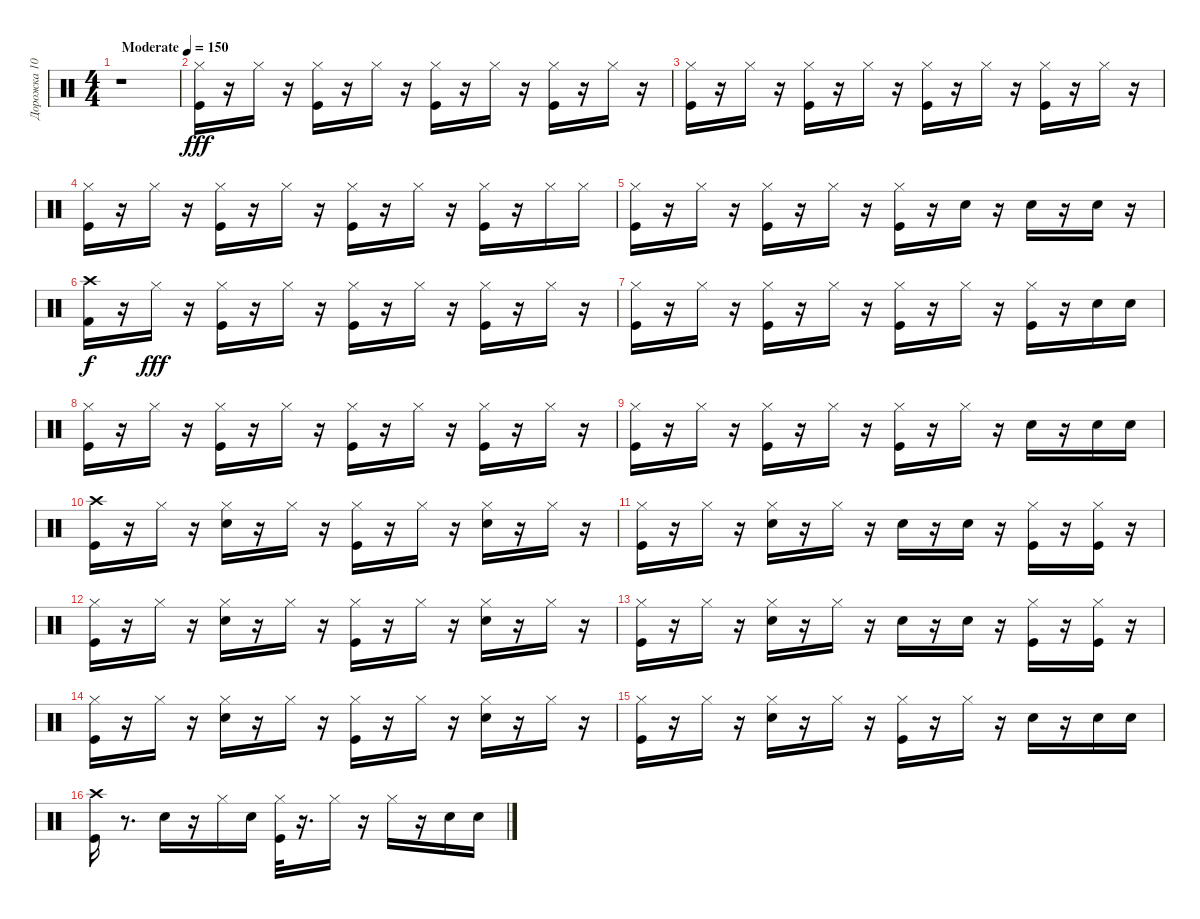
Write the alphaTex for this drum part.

\track ("Дорожка 10" "Дорожка 10") {instrument percussion}
\staff {score}
\articulation defaults
\ts (4 4)
\tempo (150 "Moderate")
\clef neutral
\ks c
r.1{dy fff} |
("Kick (hit)" "Hi-Hat (closed)").16 r.16 "Hi-Hat (closed)".16 r.16 ("Hi-Hat (closed)" "Kick (hit)").16 r.16 "Hi-Hat (closed)".16 r.16 ("Kick (hit)" "Hi-Hat (closed)").16 r.16 "Hi-Hat (closed)".16 r.16 ("Hi-Hat (closed)" "Kick (hit)").16 r.16 "Hi-Hat (closed)".16 r.16 |
("Kick (hit)" "Hi-Hat (closed)").16 r.16 "Hi-Hat (closed)".16 r.16 ("Hi-Hat (closed)" "Kick (hit)").16 r.16 "Hi-Hat (closed)".16 r.16 ("Hi-Hat (closed)" "Kick (hit)").16 r.16 "Hi-Hat (closed)".16 r.16 ("Hi-Hat (closed)" "Kick (hit)").16 r.16 "Hi-Hat (closed)".16 r.16 |
("Kick (hit)" "Hi-Hat (closed)").16 r.16 "Hi-Hat (closed)".16 r.16 ("Hi-Hat (closed)" "Kick (hit)").16 r.16 "Hi-Hat (closed)".16 r.16 ("Hi-Hat (closed)" "Kick (hit)").16 r.16 "Hi-Hat (closed)".16 r.16 ("Hi-Hat (closed)" "Kick (hit)").16 r.16 "Hi-Hat (closed)".16 "Hi-Hat (closed)".16 |
("Kick (hit)" "Hi-Hat (closed)").16 r.16 "Hi-Hat (closed)".16 r.16 ("Hi-Hat (closed)" "Kick (hit)").16 r.16 "Hi-Hat (closed)".16 r.16 ("Hi-Hat (closed)" "Kick (hit)").16 r.16 "Electric Snare (hit)".16 r.16 "Electric Snare (hit)".16 r.16 "Electric Snare (hit)".16 r.16 |
("Kick (hit) 2" "Crash high (hit)").16{dy f} r.16 "Hi-Hat (closed)".16{dy fff} r.16 ("Kick (hit)" "Hi-Hat (closed)").16 r.16 "Hi-Hat (closed)".16 r.16 ("Hi-Hat (closed)" "Kick (hit)").16 r.16 "Hi-Hat (closed)".16 r.16 ("Hi-Hat (closed)" "Kick (hit)").16 r.16 "Hi-Hat (closed)".16 r.16 |
("Hi-Hat (closed)" "Kick (hit)").16 r.16 "Hi-Hat (closed)".16 r.16 ("Hi-Hat (closed)" "Kick (hit)").16 r.16 "Hi-Hat (closed)".16 r.16 ("Hi-Hat (closed)" "Kick (hit)").16 r.16 "Hi-Hat (closed)".16 r.16 ("Hi-Hat (closed)" "Kick (hit)").16 r.16 "Electric Snare (hit)".16 "Electric Snare (hit)".16 |
("Kick (hit)" "Hi-Hat (closed)").16 r.16 "Hi-Hat (closed)".16 r.16 ("Hi-Hat (closed)" "Kick (hit)").16 r.16 "Hi-Hat (closed)".16 r.16 ("Kick (hit)" "Hi-Hat (closed)").16 r.16 "Hi-Hat (closed)".16 r.16 ("Hi-Hat (closed)" "Kick (hit)").16 r.16 "Hi-Hat (closed)".16 r.16 |
("Kick (hit)" "Hi-Hat (closed)").16 r.16 "Hi-Hat (closed)".16 r.16 ("Kick (hit)" "Hi-Hat (closed)").16 r.16 "Hi-Hat (closed)".16 r.16 ("Hi-Hat (closed)" "Kick (hit)").16 r.16 "Hi-Hat (closed)".16 r.16 "Electric Snare (hit)".16 r.16 "Electric Snare (hit)".16 "Electric Snare (hit)".16 |
("Kick (hit)" "Crash high (hit)").16 r.16 "Hi-Hat (closed)".16 r.16 ("Electric Snare (hit)" "Hi-Hat (closed)").16 r.16 "Hi-Hat (closed)".16 r.16 ("Hi-Hat (closed)" "Kick (hit)").16 r.16 "Hi-Hat (closed)".16 r.16 ("Electric Snare (hit)" "Hi-Hat (closed)").16 r.16 "Hi-Hat (closed)".16 r.16 |
("Hi-Hat (closed)" "Kick (hit)").16 r.16 "Hi-Hat (closed)".16 r.16 ("Electric Snare (hit)" "Hi-Hat (closed)").16 r.16 "Hi-Hat (closed)".16 r.16 "Electric Snare (hit)".16 r.16 "Electric Snare (hit)".16 r.16 ("Kick (hit)" "Hi-Hat (closed)").16 r.16 ("Hi-Hat (closed)" "Kick (hit)").16 r.16 |
("Hi-Hat (closed)" "Kick (hit)").16 r.16 "Hi-Hat (closed)".16 r.16 ("Electric Snare (hit)" "Hi-Hat (closed)").16 r.16 "Hi-Hat (closed)".16 r.16 ("Kick (hit)" "Hi-Hat (closed)").16 r.16 "Hi-Hat (closed)".16 r.16 ("Electric Snare (hit)" "Hi-Hat (closed)").16 r.16 "Hi-Hat (closed)".16 r.16 |
("Hi-Hat (closed)" "Kick (hit)").16 r.16 "Hi-Hat (closed)".16 r.16 ("Hi-Hat (closed)" "Electric Snare (hit)").16 r.16 "Hi-Hat (closed)".16 r.16 "Electric Snare (hit)".16 r.16 "Electric Snare (hit)".16 r.16 ("Hi-Hat (closed)" "Kick (hit)").16 r.16 ("Hi-Hat (closed)" "Kick (hit)").16 r.16 |
("Kick (hit)" "Hi-Hat (closed)").16 r.16 "Hi-Hat (closed)".16 r.16 ("Hi-Hat (closed)" "Electric Snare (hit)").16 r.16 "Hi-Hat (closed)".16 r.16 ("Hi-Hat (closed)" "Kick (hit)").16 r.16 "Hi-Hat (closed)".16 r.16 ("Electric Snare (hit)" "Hi-Hat (closed)").16 r.16 "Hi-Hat (closed)".16 r.16 |
("Kick (hit)" "Hi-Hat (closed)").16 r.16 "Hi-Hat (closed)".16 r.16 ("Hi-Hat (closed)" "Electric Snare (hit)").16 r.16 "Hi-Hat (closed)".16 r.16 ("Hi-Hat (closed)" "Kick (hit)").16 r.16 "Hi-Hat (closed)".16 r.16 "Electric Snare (hit)".16 r.16 "Electric Snare (hit)".16 "Electric Snare (hit)".16 |
("Crash high (hit)" "Kick (hit)").16 r.8{d} "Electric Snare (hit)".16 r.16 "Hi-Hat (closed)".16 "Electric Snare (hit)".16 ("Hi-Hat (closed)" "Kick (hit)").32 r.16{d} "Hi-Hat (closed)".16 r.16 "Hi-Hat (closed)".16 r.16 "Electric Snare (hit)".16 "Electric Snare (hit)".16
